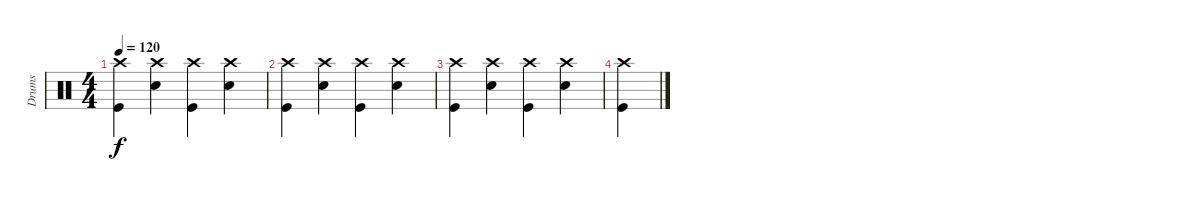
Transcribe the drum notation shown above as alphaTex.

\track ("Drums" "Drums") {instrument percussion}
\staff {score}
\articulation defaults
\ts (4 4)
\tempo 120
\clef neutral
\ks c
("Crash high (hit)" "Kick (hit)").4{dy f} ("Crash high (hit)" "Snare (hit) 2").4 ("Crash high (hit)" "Kick (hit)").4 ("Crash high (hit)" "Snare (hit) 2").4 |
("Crash high (hit)" "Kick (hit)").4 ("Crash high (hit)" "Snare (hit) 2").4 ("Crash high (hit)" "Kick (hit)").4 ("Crash high (hit)" "Snare (hit) 2").4 |
("Crash high (hit)" "Kick (hit)").4 ("Crash high (hit)" "Snare (hit) 2").4 ("Crash high (hit)" "Kick (hit)").4 ("Crash high (hit)" "Snare (hit) 2").4 |
("Crash high (hit)" "Kick (hit)").4
